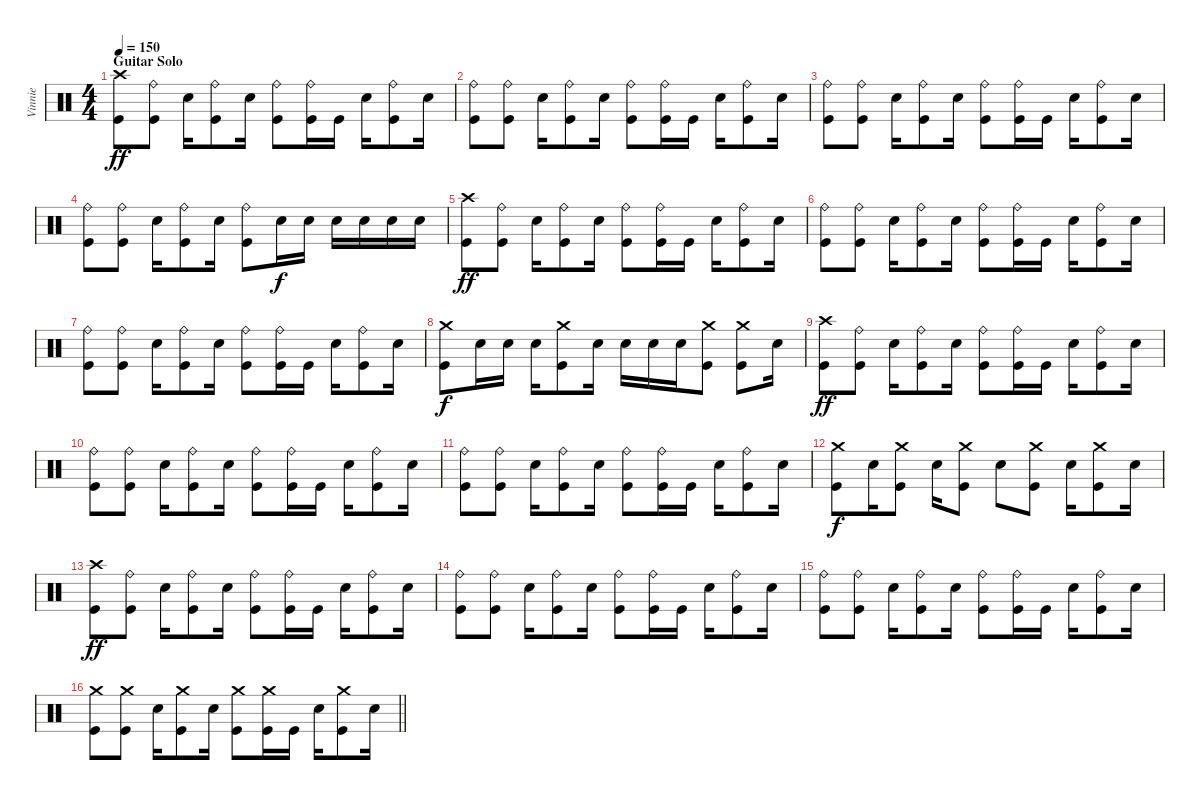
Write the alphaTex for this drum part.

\track ("Vinnie" "Vinnie") {instrument percussion}
\staff {score}
\articulation defaults
\ts (4 4)
\section ("" "Guitar Solo")
\tempo 150
\clef neutral
\ks c
("Crash high (hit)" "Kick (hit)").8{dy ff} ("Ride (bell)" "Kick (hit)").8 "Electric Snare (hit)".16 ("Ride (bell)" "Kick (hit)").8 "Electric Snare (hit)".16 ("Ride (bell)" "Kick (hit)").8 ("Ride (bell)" "Kick (hit)").16 "Kick (hit)".16 "Electric Snare (hit)".16 ("Ride (bell)" "Kick (hit)").8 "Electric Snare (hit)".16 |
("Ride (bell)" "Kick (hit)").8 ("Ride (bell)" "Kick (hit)").8 "Electric Snare (hit)".16 ("Ride (bell)" "Kick (hit)").8 "Electric Snare (hit)".16 ("Ride (bell)" "Kick (hit)").8 ("Ride (bell)" "Kick (hit)").16 "Kick (hit)".16 "Electric Snare (hit)".16 ("Ride (bell)" "Kick (hit)").8 "Electric Snare (hit)".16 |
("Ride (bell)" "Kick (hit)").8 ("Ride (bell)" "Kick (hit)").8 "Electric Snare (hit)".16 ("Ride (bell)" "Kick (hit)").8 "Electric Snare (hit)".16 ("Ride (bell)" "Kick (hit)").8 ("Ride (bell)" "Kick (hit)").16 "Kick (hit)".16 "Electric Snare (hit)".16 ("Ride (bell)" "Kick (hit)").8 "Electric Snare (hit)".16 |
("Ride (bell)" "Kick (hit)").8 ("Ride (bell)" "Kick (hit)").8 "Electric Snare (hit)".16 ("Ride (bell)" "Kick (hit)").8 "Electric Snare (hit)".16 ("Ride (bell)" "Kick (hit)").8 "Electric Snare (hit)".16{dy f} "Electric Snare (hit)".16 "Electric Snare (hit)".16 "Electric Snare (hit)".16 "Electric Snare (hit)".16 "Electric Snare (hit)".16 |
("Crash high (hit)" "Kick (hit)").8{dy ff} ("Ride (bell)" "Kick (hit)").8 "Electric Snare (hit)".16 ("Ride (bell)" "Kick (hit)").8 "Electric Snare (hit)".16 ("Ride (bell)" "Kick (hit)").8 ("Ride (bell)" "Kick (hit)").16 "Kick (hit)".16 "Electric Snare (hit)".16 ("Ride (bell)" "Kick (hit)").8 "Electric Snare (hit)".16 |
("Ride (bell)" "Kick (hit)").8 ("Ride (bell)" "Kick (hit)").8 "Electric Snare (hit)".16 ("Ride (bell)" "Kick (hit)").8 "Electric Snare (hit)".16 ("Ride (bell)" "Kick (hit)").8 ("Ride (bell)" "Kick (hit)").16 "Kick (hit)".16 "Electric Snare (hit)".16 ("Ride (bell)" "Kick (hit)").8 "Electric Snare (hit)".16 |
("Ride (bell)" "Kick (hit)").8 ("Ride (bell)" "Kick (hit)").8 "Electric Snare (hit)".16 ("Ride (bell)" "Kick (hit)").8 "Electric Snare (hit)".16 ("Ride (bell)" "Kick (hit)").8 ("Ride (bell)" "Kick (hit)").16 "Kick (hit)".16 "Electric Snare (hit)".16 ("Ride (bell)" "Kick (hit)").8 "Electric Snare (hit)".16 |
("Crash medium (hit)" "Kick (hit)").8{dy f} "Electric Snare (hit)".16 "Electric Snare (hit)".16 "Electric Snare (hit)".16 ("Crash medium (hit)" "Kick (hit)").8 "Electric Snare (hit)".16 "Electric Snare (hit)".16 "Electric Snare (hit)".16 "Electric Snare (hit)".16 ("Crash medium (hit)" "Kick (hit)").8 ("Crash medium (hit)" "Kick (hit)").8 "Electric Snare (hit)".16 |
("Crash high (hit)" "Kick (hit)").8{dy ff} ("Ride (bell)" "Kick (hit)").8 "Electric Snare (hit)".16 ("Ride (bell)" "Kick (hit)").8 "Electric Snare (hit)".16 ("Ride (bell)" "Kick (hit)").8 ("Ride (bell)" "Kick (hit)").16 "Kick (hit)".16 "Electric Snare (hit)".16 ("Ride (bell)" "Kick (hit)").8 "Electric Snare (hit)".16 |
("Ride (bell)" "Kick (hit)").8 ("Ride (bell)" "Kick (hit)").8 "Electric Snare (hit)".16 ("Ride (bell)" "Kick (hit)").8 "Electric Snare (hit)".16 ("Ride (bell)" "Kick (hit)").8 ("Ride (bell)" "Kick (hit)").16 "Kick (hit)".16 "Electric Snare (hit)".16 ("Ride (bell)" "Kick (hit)").8 "Electric Snare (hit)".16 |
("Ride (bell)" "Kick (hit)").8 ("Ride (bell)" "Kick (hit)").8 "Electric Snare (hit)".16 ("Ride (bell)" "Kick (hit)").8 "Electric Snare (hit)".16 ("Ride (bell)" "Kick (hit)").8 ("Ride (bell)" "Kick (hit)").16 "Kick (hit)".16 "Electric Snare (hit)".16 ("Ride (bell)" "Kick (hit)").8 "Electric Snare (hit)".16 |
("Crash medium (hit)" "Kick (hit)").8{dy f} "Electric Snare (hit)".16 ("Crash medium (hit)" "Kick (hit)").8 "Electric Snare (hit)".16 ("Crash medium (hit)" "Kick (hit)").8 "Electric Snare (hit)".8 ("Crash medium (hit)" "Kick (hit)").8 "Electric Snare (hit)".16 ("Crash medium (hit)" "Kick (hit)").8 "Electric Snare (hit)".16 |
("Crash high (hit)" "Kick (hit)").8{dy ff} ("Ride (bell)" "Kick (hit)").8 "Electric Snare (hit)".16 ("Ride (bell)" "Kick (hit)").8 "Electric Snare (hit)".16 ("Ride (bell)" "Kick (hit)").8 ("Ride (bell)" "Kick (hit)").16 "Kick (hit)".16 "Electric Snare (hit)".16 ("Ride (bell)" "Kick (hit)").8 "Electric Snare (hit)".16 |
("Ride (bell)" "Kick (hit)").8 ("Ride (bell)" "Kick (hit)").8 "Electric Snare (hit)".16 ("Ride (bell)" "Kick (hit)").8 "Electric Snare (hit)".16 ("Ride (bell)" "Kick (hit)").8 ("Ride (bell)" "Kick (hit)").16 "Kick (hit)".16 "Electric Snare (hit)".16 ("Ride (bell)" "Kick (hit)").8 "Electric Snare (hit)".16 |
("Ride (bell)" "Kick (hit)").8 ("Ride (bell)" "Kick (hit)").8 "Electric Snare (hit)".16 ("Ride (bell)" "Kick (hit)").8 "Electric Snare (hit)".16 ("Ride (bell)" "Kick (hit)").8 ("Ride (bell)" "Kick (hit)").16 "Kick (hit)".16 "Electric Snare (hit)".16 ("Ride (bell)" "Kick (hit)").8 "Electric Snare (hit)".16 |
\barLineRight lightlight
("Crash medium (hit)" "Kick (hit)").8 ("Crash medium (hit)" "Kick (hit)").8 "Electric Snare (hit)".16 ("Crash medium (hit)" "Kick (hit)").8 "Electric Snare (hit)".16 ("Crash medium (hit)" "Kick (hit)").8 ("Crash medium (hit)" "Kick (hit)").16 "Kick (hit)".16 "Electric Snare (hit)".16 ("Crash medium (hit)" "Kick (hit)").8 "Electric Snare (hit)".16
